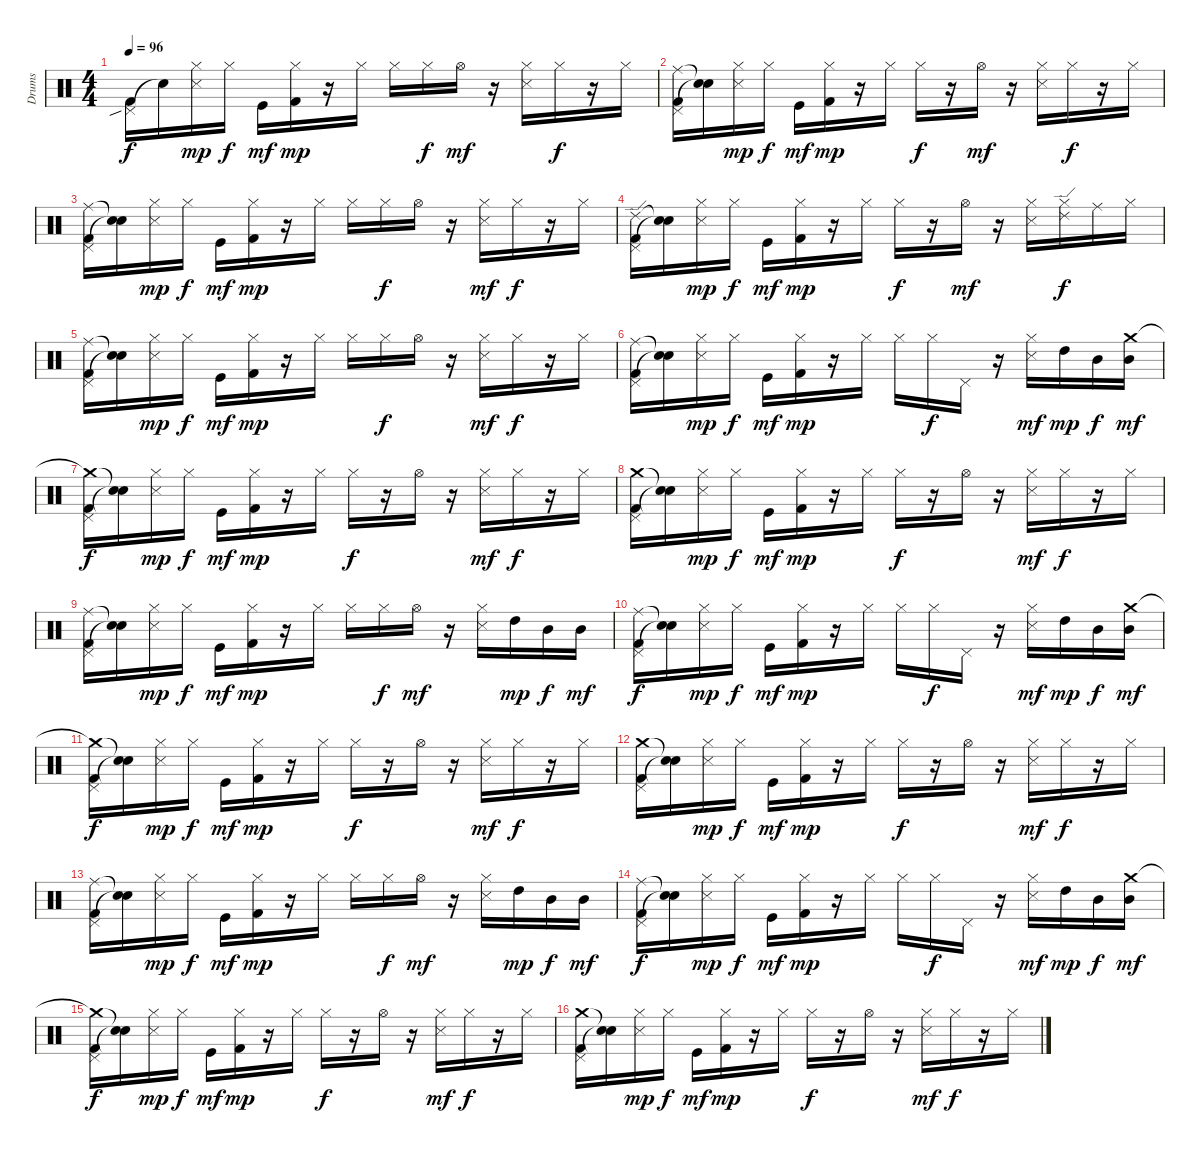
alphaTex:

\track ("Drums" "Drums") {instrument percussion}
\staff {score}
\articulation defaults
\ts (4 4)
\tempo 96
\clef neutral
\ks c
("Pedal Hi-Hat (hit)"{sib} "Kick (hit) 2").16{dy f} "Snare (hit)"{t}.16 ("Hi-Hat (closed)" "Snare (side stick) 3").16{dy mp} "Hi-Hat (closed)".16{dy f} "Kick (hit)".16{dy mf} ("Hi-Hat (closed)" "Kick (hit) 2").16{dy mp} r.16 "Hi-Hat (closed)".16 "Hi-Hat (closed)".16 "Hi-Hat (closed)".16{dy f} "Hi-Hat (open)".16{dy mf} r.16 ("Hi-Hat (closed)" "Snare (side stick) 3").16 "Hi-Hat (closed)".16{dy f} r.16 "Hi-Hat (closed)".16 |
("Ride (middle)" "Pedal Hi-Hat (hit)" "Kick (hit) 2").16 ("Snare (hit)"{t} "Snare (hit)"{t}).16 ("Hi-Hat (closed)" "Snare (side stick) 3").16{dy mp} "Hi-Hat (closed)".16{dy f} "Kick (hit)".16{dy mf} ("Hi-Hat (closed)" "Kick (hit) 2").16{dy mp} r.16 "Hi-Hat (closed)".16 "Hi-Hat (closed)".16{dy f} r.16 "Hi-Hat (open)".16{dy mf} r.16 ("Hi-Hat (closed)" "Snare (side stick) 3").16 "Hi-Hat (closed)".16{dy f} r.16 "Hi-Hat (closed)".16 |
("Ride (middle)" "Pedal Hi-Hat (hit)" "Kick (hit) 2").16 ("Snare (hit)"{t} "Snare (hit)"{t}).16 ("Hi-Hat (closed)" "Snare (side stick) 3").16{dy mp} "Hi-Hat (closed)".16{dy f} "Kick (hit)".16{dy mf} ("Hi-Hat (closed)" "Kick (hit) 2").16{dy mp} r.16 "Hi-Hat (closed)".16 "Hi-Hat (closed)".16 "Hi-Hat (closed)".16{dy f} "Hi-Hat (open)".16 r.16 ("Hi-Hat (closed)" "Snare (side stick) 3").16{dy mf} "Hi-Hat (closed)".16{dy f} r.16 "Hi-Hat (closed)".16 |
("Ride (edge) 2" "Pedal Hi-Hat (hit)" "Kick (hit) 2").16 ("Snare (hit)"{t} "Snare (hit)"{t}).16 ("Hi-Hat (closed)" "Snare (side stick) 3").16{dy mp} "Hi-Hat (closed)".16{dy f} "Kick (hit)".16{dy mf} ("Hi-Hat (closed)" "Kick (hit) 2").16{dy mp} r.16 "Hi-Hat (closed)".16 "Hi-Hat (closed)".16{dy f} r.16 "Hi-Hat (open)".16{dy mf} r.16 ("Hi-Hat (closed)" "Snare (side stick) 3").16 ("Ride (edge) 2" "Hi-Hat (closed)").16{dy f} "Ride (middle)".16 "Hi-Hat (closed)".16 |
("Ride (middle)" "Pedal Hi-Hat (hit)" "Kick (hit) 2").16 ("Snare (hit)"{t} "Snare (hit)"{t}).16 ("Hi-Hat (closed)" "Snare (side stick) 3").16{dy mp} "Hi-Hat (closed)".16{dy f} "Kick (hit)".16{dy mf} ("Hi-Hat (closed)" "Kick (hit) 2").16{dy mp} r.16 "Hi-Hat (closed)".16 "Hi-Hat (closed)".16 "Hi-Hat (closed)".16{dy f} "Hi-Hat (open)".16 r.16 ("Hi-Hat (closed)" "Snare (side stick) 3").16{dy mf} "Hi-Hat (closed)".16{dy f} r.16 "Hi-Hat (closed)".16 |
("Ride (middle)" "Pedal Hi-Hat (hit)" "Kick (hit) 2").16 ("Snare (hit)"{t} "Snare (hit)"{t}).16 ("Hi-Hat (closed)" "Snare (side stick) 3").16{dy mp} "Hi-Hat (closed)".16{dy f} "Kick (hit)".16{dy mf} ("Hi-Hat (closed)" "Kick (hit) 2").16{dy mp} r.16 "Hi-Hat (closed)".16 "Hi-Hat (closed)".16 "Hi-Hat (closed)".16{dy f} "Pedal Hi-Hat (hit)".16 r.16 ("Hi-Hat (closed)" "Snare (side stick) 3").16{dy mf} "High Tom (hit)".16{dy mp} "Mid Tom (hit)".16{dy f} ("Crash medium (hit)" "Mid Tom (hit)").16{dy mf} |
("Crash medium (hit)"{t} "Pedal Hi-Hat (hit)" "Kick (hit) 2").16{dy f} ("Snare (hit)"{t} "Snare (hit)"{t}).16 ("Hi-Hat (closed)" "Snare (side stick) 3").16{dy mp} "Hi-Hat (closed)".16{dy f} "Kick (hit)".16{dy mf} ("Hi-Hat (closed)" "Kick (hit) 2").16{dy mp} r.16 "Hi-Hat (closed)".16 "Hi-Hat (closed)".16{dy f} r.16 "Hi-Hat (open)".16 r.16 ("Hi-Hat (closed)" "Snare (side stick) 3").16{dy mf} "Hi-Hat (closed)".16{dy f} r.16 "Hi-Hat (closed)".16 |
("Crash medium (hit)" "Pedal Hi-Hat (hit)" "Kick (hit) 2").16 ("Snare (hit)"{t} "Snare (hit)"{t}).16 ("Hi-Hat (closed)" "Snare (side stick) 3").16{dy mp} "Hi-Hat (closed)".16{dy f} "Kick (hit)".16{dy mf} ("Hi-Hat (closed)" "Kick (hit) 2").16{dy mp} r.16 "Hi-Hat (closed)".16 "Hi-Hat (closed)".16{dy f} r.16 "Hi-Hat (open)".16 r.16 ("Hi-Hat (closed)" "Snare (side stick) 3").16{dy mf} "Hi-Hat (closed)".16{dy f} r.16 "Hi-Hat (closed)".16 |
("Ride (middle)" "Pedal Hi-Hat (hit)" "Kick (hit) 2").16 ("Snare (hit)"{t} "Snare (hit)"{t}).16 ("Hi-Hat (closed)" "Snare (side stick) 3").16{dy mp} "Hi-Hat (closed)".16{dy f} "Kick (hit)".16{dy mf} ("Hi-Hat (closed)" "Kick (hit) 2").16{dy mp} r.16 "Hi-Hat (closed)".16 "Hi-Hat (closed)".16 "Hi-Hat (closed)".16{dy f} "Hi-Hat (open)".16{dy mf} r.16 ("Hi-Hat (closed)" "Snare (side stick) 3").16 "High Tom (hit)".16{dy mp} "Mid Tom (hit)".16{dy f} "Mid Tom (hit)".16{dy mf} |
("Ride (middle)" "Pedal Hi-Hat (hit)" "Kick (hit) 2").16{dy f} ("Snare (hit)"{t} "Snare (hit)"{t}).16 ("Hi-Hat (closed)" "Snare (side stick) 3").16{dy mp} "Hi-Hat (closed)".16{dy f} "Kick (hit)".16{dy mf} ("Hi-Hat (closed)" "Kick (hit) 2").16{dy mp} r.16 "Hi-Hat (closed)".16 "Hi-Hat (closed)".16 "Hi-Hat (closed)".16{dy f} "Pedal Hi-Hat (hit)".16 r.16 ("Hi-Hat (closed)" "Snare (side stick) 3").16{dy mf} "High Tom (hit)".16{dy mp} "Mid Tom (hit)".16{dy f} ("Crash medium (hit)" "Mid Tom (hit)").16{dy mf} |
("Crash medium (hit)"{t} "Pedal Hi-Hat (hit)" "Kick (hit) 2").16{dy f} ("Snare (hit)"{t} "Snare (hit)"{t}).16 ("Hi-Hat (closed)" "Snare (side stick) 3").16{dy mp} "Hi-Hat (closed)".16{dy f} "Kick (hit)".16{dy mf} ("Hi-Hat (closed)" "Kick (hit) 2").16{dy mp} r.16 "Hi-Hat (closed)".16 "Hi-Hat (closed)".16{dy f} r.16 "Hi-Hat (open)".16 r.16 ("Hi-Hat (closed)" "Snare (side stick) 3").16{dy mf} "Hi-Hat (closed)".16{dy f} r.16 "Hi-Hat (closed)".16 |
("Crash medium (hit)" "Pedal Hi-Hat (hit)" "Kick (hit) 2").16 ("Snare (hit)"{t} "Snare (hit)"{t}).16 ("Hi-Hat (closed)" "Snare (side stick) 3").16{dy mp} "Hi-Hat (closed)".16{dy f} "Kick (hit)".16{dy mf} ("Hi-Hat (closed)" "Kick (hit) 2").16{dy mp} r.16 "Hi-Hat (closed)".16 "Hi-Hat (closed)".16{dy f} r.16 "Hi-Hat (open)".16 r.16 ("Hi-Hat (closed)" "Snare (side stick) 3").16{dy mf} "Hi-Hat (closed)".16{dy f} r.16 "Hi-Hat (closed)".16 |
("Ride (middle)" "Pedal Hi-Hat (hit)" "Kick (hit) 2").16 ("Snare (hit)"{t} "Snare (hit)"{t}).16 ("Hi-Hat (closed)" "Snare (side stick) 3").16{dy mp} "Hi-Hat (closed)".16{dy f} "Kick (hit)".16{dy mf} ("Hi-Hat (closed)" "Kick (hit) 2").16{dy mp} r.16 "Hi-Hat (closed)".16 "Hi-Hat (closed)".16 "Hi-Hat (closed)".16{dy f} "Hi-Hat (open)".16{dy mf} r.16 ("Hi-Hat (closed)" "Snare (side stick) 3").16 "High Tom (hit)".16{dy mp} "Mid Tom (hit)".16{dy f} "Mid Tom (hit)".16{dy mf} |
("Ride (middle)" "Pedal Hi-Hat (hit)" "Kick (hit) 2").16{dy f} ("Snare (hit)"{t} "Snare (hit)"{t}).16 ("Hi-Hat (closed)" "Snare (side stick) 3").16{dy mp} "Hi-Hat (closed)".16{dy f} "Kick (hit)".16{dy mf} ("Hi-Hat (closed)" "Kick (hit) 2").16{dy mp} r.16 "Hi-Hat (closed)".16 "Hi-Hat (closed)".16 "Hi-Hat (closed)".16{dy f} "Pedal Hi-Hat (hit)".16 r.16 ("Hi-Hat (closed)" "Snare (side stick) 3").16{dy mf} "High Tom (hit)".16{dy mp} "Mid Tom (hit)".16{dy f} ("Crash medium (hit)" "Mid Tom (hit)").16{dy mf} |
("Crash medium (hit)"{t} "Pedal Hi-Hat (hit)" "Kick (hit) 2").16{dy f} ("Snare (hit)"{t} "Snare (hit)"{t}).16 ("Hi-Hat (closed)" "Snare (side stick) 3").16{dy mp} "Hi-Hat (closed)".16{dy f} "Kick (hit)".16{dy mf} ("Hi-Hat (closed)" "Kick (hit) 2").16{dy mp} r.16 "Hi-Hat (closed)".16 "Hi-Hat (closed)".16{dy f} r.16 "Hi-Hat (open)".16 r.16 ("Hi-Hat (closed)" "Snare (side stick) 3").16{dy mf} "Hi-Hat (closed)".16{dy f} r.16 "Hi-Hat (closed)".16 |
("Crash medium (hit)" "Pedal Hi-Hat (hit)" "Kick (hit) 2").16 ("Snare (hit)"{t} "Snare (hit)"{t}).16 ("Hi-Hat (closed)" "Snare (side stick) 3").16{dy mp} "Hi-Hat (closed)".16{dy f} "Kick (hit)".16{dy mf} ("Hi-Hat (closed)" "Kick (hit) 2").16{dy mp} r.16 "Hi-Hat (closed)".16 "Hi-Hat (closed)".16{dy f} r.16 "Hi-Hat (open)".16 r.16 ("Hi-Hat (closed)" "Snare (side stick) 3").16{dy mf} "Hi-Hat (closed)".16{dy f} r.16 "Hi-Hat (closed)".16
